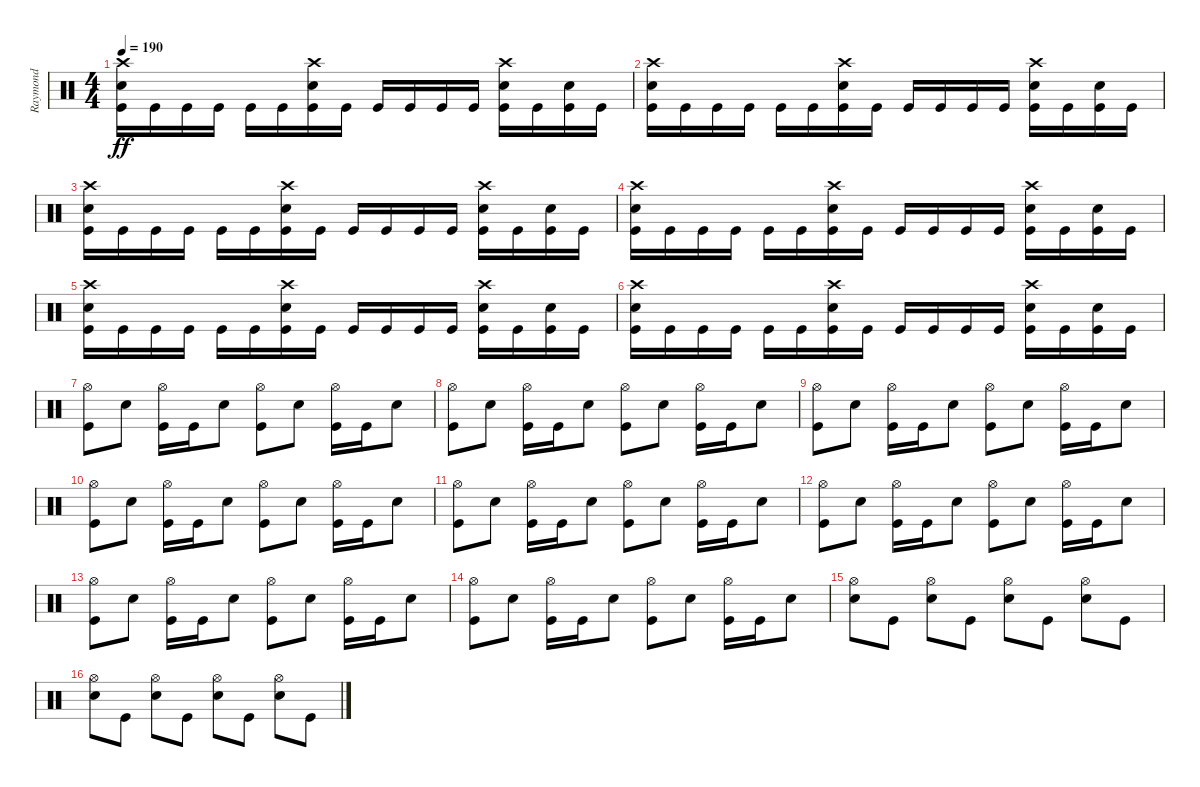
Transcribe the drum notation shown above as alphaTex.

\track ("Raymond" "Raymond") {instrument percussion}
\staff {score}
\articulation defaults
\ts (4 4)
\tempo 190
\clef neutral
\ks c
("Kick (hit)" "Snare (hit) 2" "Crash high (hit)").16{dy ff} "Kick (hit)".16 "Kick (hit)".16 "Kick (hit)".16 "Kick (hit)".16 "Kick (hit)".16 ("Kick (hit)" "Snare (hit) 2" "Crash high (hit)").16 "Kick (hit)".16 "Kick (hit)".16 "Kick (hit)".16 "Kick (hit)".16 "Kick (hit)".16 ("Kick (hit)" "Snare (hit) 2" "Crash high (hit)").16 "Kick (hit)".16 ("Kick (hit)" "Snare (hit) 2").16 "Kick (hit)".16 |
("Kick (hit)" "Snare (hit) 2" "Crash high (hit)").16 "Kick (hit)".16 "Kick (hit)".16 "Kick (hit)".16 "Kick (hit)".16 "Kick (hit)".16 ("Kick (hit)" "Snare (hit) 2" "Crash high (hit)").16 "Kick (hit)".16 "Kick (hit)".16 "Kick (hit)".16 "Kick (hit)".16 "Kick (hit)".16 ("Kick (hit)" "Snare (hit) 2" "Crash high (hit)").16 "Kick (hit)".16 ("Kick (hit)" "Snare (hit) 2").16 "Kick (hit)".16 |
("Kick (hit)" "Snare (hit) 2" "Crash high (hit)").16 "Kick (hit)".16 "Kick (hit)".16 "Kick (hit)".16 "Kick (hit)".16 "Kick (hit)".16 ("Kick (hit)" "Snare (hit) 2" "Crash high (hit)").16 "Kick (hit)".16 "Kick (hit)".16 "Kick (hit)".16 "Kick (hit)".16 "Kick (hit)".16 ("Kick (hit)" "Snare (hit) 2" "Crash high (hit)").16 "Kick (hit)".16 ("Kick (hit)" "Snare (hit) 2").16 "Kick (hit)".16 |
("Kick (hit)" "Snare (hit) 2" "Crash high (hit)").16 "Kick (hit)".16 "Kick (hit)".16 "Kick (hit)".16 "Kick (hit)".16 "Kick (hit)".16 ("Kick (hit)" "Snare (hit) 2" "Crash high (hit)").16 "Kick (hit)".16 "Kick (hit)".16 "Kick (hit)".16 "Kick (hit)".16 "Kick (hit)".16 ("Kick (hit)" "Snare (hit) 2" "Crash high (hit)").16 "Kick (hit)".16 ("Kick (hit)" "Snare (hit) 2").16 "Kick (hit)".16 |
("Kick (hit)" "Snare (hit) 2" "Crash high (hit)").16 "Kick (hit)".16 "Kick (hit)".16 "Kick (hit)".16 "Kick (hit)".16 "Kick (hit)".16 ("Kick (hit)" "Snare (hit) 2" "Crash high (hit)").16 "Kick (hit)".16 "Kick (hit)".16 "Kick (hit)".16 "Kick (hit)".16 "Kick (hit)".16 ("Kick (hit)" "Snare (hit) 2" "Crash high (hit)").16 "Kick (hit)".16 ("Kick (hit)" "Snare (hit) 2").16 "Kick (hit)".16 |
("Kick (hit)" "Snare (hit) 2" "Crash high (hit)").16 "Kick (hit)".16 "Kick (hit)".16 "Kick (hit)".16 "Kick (hit)".16 "Kick (hit)".16 ("Kick (hit)" "Snare (hit) 2" "Crash high (hit)").16 "Kick (hit)".16 "Kick (hit)".16 "Kick (hit)".16 "Kick (hit)".16 "Kick (hit)".16 ("Kick (hit)" "Snare (hit) 2" "Crash high (hit)").16 "Kick (hit)".16 ("Kick (hit)" "Snare (hit) 2").16 "Kick (hit)".16 |
("Kick (hit)" "Hi-Hat (open)").8 "Snare (hit) 2".8 ("Kick (hit)" "Hi-Hat (open)").16 "Kick (hit)".16 "Snare (hit) 2".8 ("Kick (hit)" "Hi-Hat (open)").8 "Snare (hit) 2".8 ("Kick (hit)" "Hi-Hat (open)").16 "Kick (hit)".16 "Snare (hit) 2".8 |
("Kick (hit)" "Hi-Hat (open)").8 "Snare (hit) 2".8 ("Kick (hit)" "Hi-Hat (open)").16 "Kick (hit)".16 "Snare (hit) 2".8 ("Kick (hit)" "Hi-Hat (open)").8 "Snare (hit) 2".8 ("Kick (hit)" "Hi-Hat (open)").16 "Kick (hit)".16 "Snare (hit) 2".8 |
("Kick (hit)" "Hi-Hat (open)").8 "Snare (hit) 2".8 ("Kick (hit)" "Hi-Hat (open)").16 "Kick (hit)".16 "Snare (hit) 2".8 ("Kick (hit)" "Hi-Hat (open)").8 "Snare (hit) 2".8 ("Kick (hit)" "Hi-Hat (open)").16 "Kick (hit)".16 "Snare (hit) 2".8 |
("Kick (hit)" "Hi-Hat (open)").8 "Snare (hit) 2".8 ("Kick (hit)" "Hi-Hat (open)").16 "Kick (hit)".16 "Snare (hit) 2".8 ("Kick (hit)" "Hi-Hat (open)").8 "Snare (hit) 2".8 ("Kick (hit)" "Hi-Hat (open)").16 "Kick (hit)".16 "Snare (hit) 2".8 |
("Kick (hit)" "Hi-Hat (open)").8 "Snare (hit) 2".8 ("Kick (hit)" "Hi-Hat (open)").16 "Kick (hit)".16 "Snare (hit) 2".8 ("Kick (hit)" "Hi-Hat (open)").8 "Snare (hit) 2".8 ("Kick (hit)" "Hi-Hat (open)").16 "Kick (hit)".16 "Snare (hit) 2".8 |
("Kick (hit)" "Hi-Hat (open)").8 "Snare (hit) 2".8 ("Kick (hit)" "Hi-Hat (open)").16 "Kick (hit)".16 "Snare (hit) 2".8 ("Kick (hit)" "Hi-Hat (open)").8 "Snare (hit) 2".8 ("Kick (hit)" "Hi-Hat (open)").16 "Kick (hit)".16 "Snare (hit) 2".8 |
("Kick (hit)" "Hi-Hat (open)").8 "Snare (hit) 2".8 ("Kick (hit)" "Hi-Hat (open)").16 "Kick (hit)".16 "Snare (hit) 2".8 ("Kick (hit)" "Hi-Hat (open)").8 "Snare (hit) 2".8 ("Kick (hit)" "Hi-Hat (open)").16 "Kick (hit)".16 "Snare (hit) 2".8 |
("Kick (hit)" "Hi-Hat (open)").8 "Snare (hit) 2".8 ("Kick (hit)" "Hi-Hat (open)").16 "Kick (hit)".16 "Snare (hit) 2".8 ("Kick (hit)" "Hi-Hat (open)").8 "Snare (hit) 2".8 ("Kick (hit)" "Hi-Hat (open)").16 "Kick (hit)".16 "Snare (hit) 2".8 |
("Snare (hit) 2" "Hi-Hat (open)").8 "Kick (hit)".8 ("Snare (hit) 2" "Hi-Hat (open)").8 "Kick (hit)".8 ("Snare (hit) 2" "Hi-Hat (open)").8 "Kick (hit)".8 ("Snare (hit) 2" "Hi-Hat (open)").8 "Kick (hit)".8 |
("Snare (hit) 2" "Hi-Hat (open)").8 "Kick (hit)".8 ("Snare (hit) 2" "Hi-Hat (open)").8 "Kick (hit)".8 ("Snare (hit) 2" "Hi-Hat (open)").8 "Kick (hit)".8 ("Snare (hit) 2" "Hi-Hat (open)").8 "Kick (hit)".8
